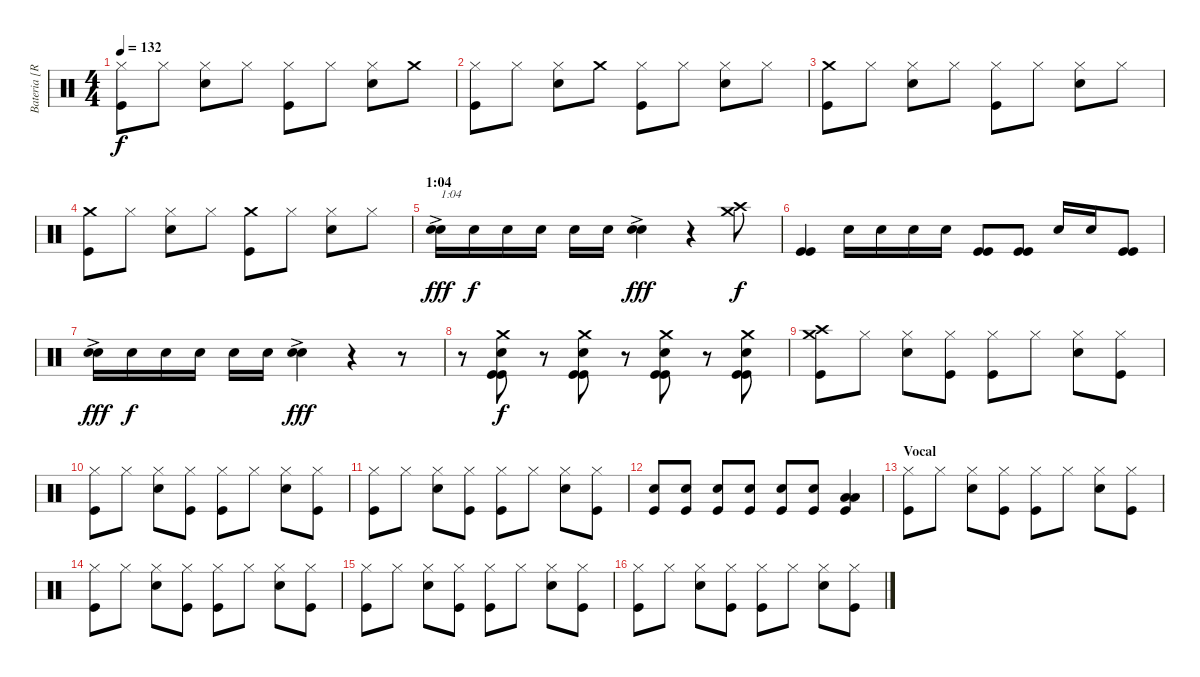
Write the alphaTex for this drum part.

\track ("Bateria [Ricardo Confessori]" "Bateria [R") {instrument percussion}
\staff {score}
\articulation defaults
\ts (4 4)
\tempo 132
\clef neutral
\ks c
("Hi-Hat (closed)" "Kick (hit)").8{dy f} "Hi-Hat (closed)".8 ("Hi-Hat (closed)" "Electric Snare (hit)").8 "Hi-Hat (closed)".8 ("Hi-Hat (closed)" "Kick (hit)").8 "Hi-Hat (closed)".8 ("Hi-Hat (closed)" "Electric Snare (hit)").8 "Crash medium (hit)".8 |
("Hi-Hat (closed)" "Kick (hit)").8 "Hi-Hat (closed)".8 ("Hi-Hat (closed)" "Electric Snare (hit)").8 "Crash medium (hit)".8 ("Hi-Hat (closed)" "Kick (hit)").8 "Hi-Hat (closed)".8 ("Hi-Hat (closed)" "Electric Snare (hit)").8 "Hi-Hat (closed)".8 |
("Crash medium (hit)" "Kick (hit)").8 "Hi-Hat (closed)".8 ("Hi-Hat (closed)" "Electric Snare (hit)").8 "Hi-Hat (closed)".8 ("Hi-Hat (closed)" "Kick (hit)").8 "Hi-Hat (closed)".8 ("Hi-Hat (closed)" "Electric Snare (hit)").8 "Hi-Hat (closed)".8 |
("Crash medium (hit)" "Kick (hit)").8 "Hi-Hat (closed)".8 ("Hi-Hat (closed)" "Electric Snare (hit)").8 "Hi-Hat (closed)".8 ("Crash medium (hit)" "Kick (hit)").8 "Hi-Hat (closed)".8 ("Hi-Hat (closed)" "Electric Snare (hit)").8 "Hi-Hat (closed)".8 |
\section ("" "1:04")
("Electric Snare (hit)"{ac} "Electric Snare (hit)").16{txt "1:04" dy fff volume 10} "Electric Snare (hit)".16{dy f} "Electric Snare (hit)".16 "Electric Snare (hit)".16 "Electric Snare (hit)".16 "Electric Snare (hit)".16 ("Electric Snare (hit)"{ac} "Electric Snare (hit)").4{dy fff} r.4 ("Crash medium (hit)" "Crash high (hit)").8{dy f} |
("Kick (hit)" "Kick (hit)").4 "Electric Snare (hit)".16 "Electric Snare (hit)".16 "Electric Snare (hit)".16 "Electric Snare (hit)".16 ("Kick (hit)" "Kick (hit)").8 ("Kick (hit)" "Kick (hit)").8 "Electric Snare (hit)".16 "Electric Snare (hit)".16 ("Kick (hit)" "Kick (hit)").8 |
("Electric Snare (hit)"{ac} "Electric Snare (hit)").16{dy fff} "Electric Snare (hit)".16{dy f} "Electric Snare (hit)".16 "Electric Snare (hit)".16 "Electric Snare (hit)".16 "Electric Snare (hit)".16 ("Electric Snare (hit)"{ac} "Electric Snare (hit)").4{dy fff} r.4 r.8 |
r.8 ("Crash medium (hit)" "Electric Snare (hit)" "Kick (hit)" "Kick (hit)").8{dy f} r.8 ("Crash medium (hit)" "Electric Snare (hit)" "Kick (hit)" "Kick (hit)").8 r.8 ("Crash medium (hit)" "Electric Snare (hit)" "Kick (hit)" "Kick (hit)").8 r.8 ("Crash medium (hit)" "Electric Snare (hit)" "Kick (hit)" "Kick (hit)").8 |
("Crash medium (hit)" "Crash high (hit)" "Kick (hit)").8 "Hi-Hat (closed)".8 ("Hi-Hat (closed)" "Electric Snare (hit)").8 ("Hi-Hat (closed)" "Kick (hit)").8 ("Hi-Hat (closed)" "Kick (hit)").8 "Hi-Hat (closed)".8 ("Hi-Hat (closed)" "Electric Snare (hit)").8 ("Hi-Hat (closed)" "Kick (hit)").8 |
("Hi-Hat (closed)" "Kick (hit)").8 "Hi-Hat (closed)".8 ("Hi-Hat (closed)" "Electric Snare (hit)").8 ("Hi-Hat (closed)" "Kick (hit)").8 ("Hi-Hat (closed)" "Kick (hit)").8 "Hi-Hat (closed)".8 ("Hi-Hat (closed)" "Electric Snare (hit)").8 ("Hi-Hat (closed)" "Kick (hit)").8 |
("Hi-Hat (closed)" "Kick (hit)").8 "Hi-Hat (closed)".8 ("Hi-Hat (closed)" "Electric Snare (hit)").8 ("Hi-Hat (closed)" "Kick (hit)").8 ("Hi-Hat (closed)" "Kick (hit)").8 "Hi-Hat (closed)".8 ("Hi-Hat (closed)" "Electric Snare (hit)").8 ("Hi-Hat (closed)" "Kick (hit)").8 |
("Electric Snare (hit)" "Kick (hit)").8 ("Electric Snare (hit)" "Kick (hit)").8 ("Electric Snare (hit)" "Kick (hit)").8 ("Electric Snare (hit)" "Kick (hit)").8 ("Electric Snare (hit)" "Kick (hit)").8 ("Electric Snare (hit)" "Kick (hit)").8 ("Low Floor Tom (hit)" "Low Floor Tom (hit)" "Kick (hit)").4 |
\section ("" "Vocal")
("Hi-Hat (closed)" "Kick (hit)").8 "Hi-Hat (closed)".8 ("Hi-Hat (closed)" "Electric Snare (hit)").8 ("Hi-Hat (closed)" "Kick (hit)").8 ("Hi-Hat (closed)" "Kick (hit)").8 "Hi-Hat (closed)".8 ("Hi-Hat (closed)" "Electric Snare (hit)").8 ("Hi-Hat (closed)" "Kick (hit)").8 |
("Hi-Hat (closed)" "Kick (hit)").8 "Hi-Hat (closed)".8 ("Hi-Hat (closed)" "Electric Snare (hit)").8 ("Hi-Hat (closed)" "Kick (hit)").8 ("Hi-Hat (closed)" "Kick (hit)").8 "Hi-Hat (closed)".8 ("Hi-Hat (closed)" "Electric Snare (hit)").8 ("Hi-Hat (closed)" "Kick (hit)").8 |
("Hi-Hat (closed)" "Kick (hit)").8 "Hi-Hat (closed)".8 ("Hi-Hat (closed)" "Electric Snare (hit)").8 ("Hi-Hat (closed)" "Kick (hit)").8 ("Hi-Hat (closed)" "Kick (hit)").8 "Hi-Hat (closed)".8 ("Hi-Hat (closed)" "Electric Snare (hit)").8 ("Hi-Hat (closed)" "Kick (hit)").8 |
("Hi-Hat (closed)" "Kick (hit)").8 "Hi-Hat (closed)".8 ("Hi-Hat (closed)" "Electric Snare (hit)").8 ("Hi-Hat (closed)" "Kick (hit)").8 ("Hi-Hat (closed)" "Kick (hit)").8 "Hi-Hat (closed)".8 ("Hi-Hat (closed)" "Electric Snare (hit)").8 ("Hi-Hat (closed)" "Kick (hit)").8
